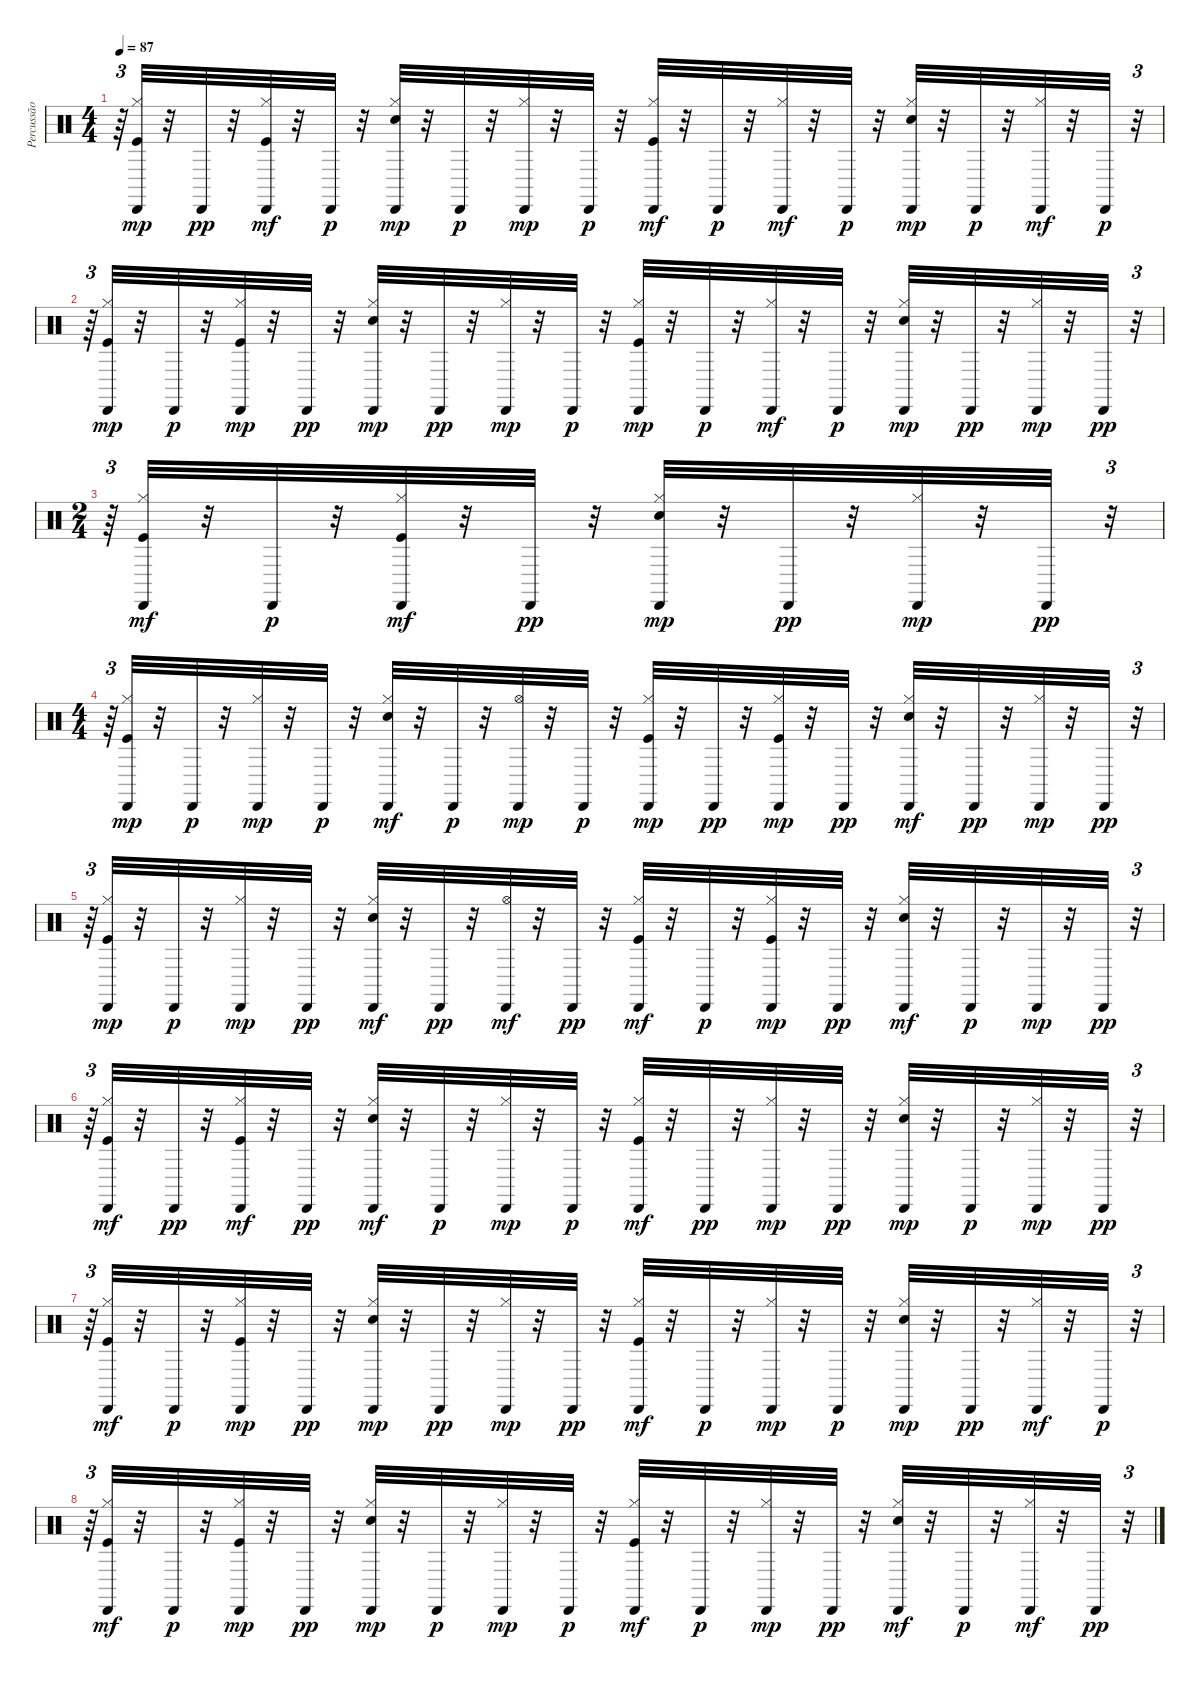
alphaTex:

\track ("Percussão" "Percussão") {instrument percussion}
\staff {score}
\articulation defaults
\ts (4 4)
\tempo 87
\clef neutral
\ks c
r.64{tu (3 2) dy pp} ("Kick (hit)" "Hi-Hat (closed)" "Cabasa (hit)").32{dy mp} r.32 "Cabasa (hit)".32{dy pp} r.32 ("Kick (hit)" "Hi-Hat (closed)" "Cabasa (hit)").32{dy mf} r.32 "Cabasa (hit)".32{dy p} r.32 ("Electric Snare (hit)" "Hi-Hat (closed)" "Cabasa (hit)").32{dy mp} r.32 "Cabasa (hit)".32{dy p} r.32 ("Hi-Hat (closed)" "Cabasa (hit)").32{dy mp} r.32 "Cabasa (hit)".32{dy p} r.32 ("Kick (hit)" "Hi-Hat (closed)" "Cabasa (hit)").32{dy mf} r.32 "Cabasa (hit)".32{dy p} r.32 ("Hi-Hat (closed)" "Cabasa (hit)").32{dy mf} r.32 "Cabasa (hit)".32{dy p} r.32 ("Electric Snare (hit)" "Hi-Hat (closed)" "Cabasa (hit)").32{dy mp} r.32 "Cabasa (hit)".32{dy p} r.32 ("Hi-Hat (closed)" "Cabasa (hit)").32{dy mf} r.32 "Cabasa (hit)".32{dy p} r.32{tu (3 2)} |
r.64{tu (3 2)} ("Kick (hit)" "Hi-Hat (closed)" "Cabasa (hit)").32{dy mp} r.32 "Cabasa (hit)".32{dy p} r.32 ("Kick (hit)" "Hi-Hat (closed)" "Cabasa (hit)").32{dy mp} r.32 "Cabasa (hit)".32{dy pp} r.32 ("Electric Snare (hit)" "Hi-Hat (closed)" "Cabasa (hit)").32{dy mp} r.32 "Cabasa (hit)".32{dy pp} r.32 ("Hi-Hat (closed)" "Cabasa (hit)").32{dy mp} r.32 "Cabasa (hit)".32{dy p} r.32 ("Kick (hit)" "Hi-Hat (closed)" "Cabasa (hit)").32{dy mp} r.32 "Cabasa (hit)".32{dy p} r.32 ("Hi-Hat (closed)" "Cabasa (hit)").32{dy mf} r.32 "Cabasa (hit)".32{dy p} r.32 ("Electric Snare (hit)" "Hi-Hat (closed)" "Cabasa (hit)").32{dy mp} r.32 "Cabasa (hit)".32{dy pp} r.32 ("Hi-Hat (closed)" "Cabasa (hit)").32{dy mp} r.32 "Cabasa (hit)".32{dy pp} r.32{tu (3 2)} |
\ts (2 4)
r.64{tu (3 2)} ("Hi-Hat (closed)" "Kick (hit)" "Cabasa (hit)").32{dy mf} r.32 "Cabasa (hit)".32{dy p} r.32 ("Hi-Hat (closed)" "Kick (hit)" "Cabasa (hit)").32{dy mf} r.32 "Cabasa (hit)".32{dy pp} r.32 ("Electric Snare (hit)" "Hi-Hat (closed)" "Cabasa (hit)").32{dy mp} r.32 "Cabasa (hit)".32{dy pp} r.32 ("Hi-Hat (closed)" "Cabasa (hit)").32{dy mp} r.32 "Cabasa (hit)".32{dy pp} r.32{tu (3 2)} |
\ts (4 4)
r.64{tu (3 2)} ("Kick (hit)" "Hi-Hat (closed)" "Cabasa (hit)").32{dy mp} r.32 "Cabasa (hit)".32{dy p} r.32 ("Hi-Hat (closed)" "Cabasa (hit)").32{dy mp} r.32 "Cabasa (hit)".32{dy p} r.32 ("Electric Snare (hit)" "Hi-Hat (closed)" "Cabasa (hit)").32{dy mf} r.32 "Cabasa (hit)".32{dy p} r.32 ("Hi-Hat (open)" "Cabasa (hit)").32{dy mp} r.32 "Cabasa (hit)".32{dy p} r.32 ("Kick (hit)" "Hi-Hat (closed)" "Cabasa (hit)").32{dy mp} r.32 "Cabasa (hit)".32{dy pp} r.32 ("Kick (hit)" "Hi-Hat (closed)" "Cabasa (hit)").32{dy mp} r.32 "Cabasa (hit)".32{dy pp} r.32 ("Electric Snare (hit)" "Hi-Hat (closed)" "Cabasa (hit)").32{dy mf} r.32 "Cabasa (hit)".32{dy pp} r.32 ("Hi-Hat (closed)" "Cabasa (hit)").32{dy mp} r.32 "Cabasa (hit)".32{dy pp} r.32{tu (3 2)} |
r.64{tu (3 2)} ("Kick (hit)" "Hi-Hat (closed)" "Cabasa (hit)").32{dy mp} r.32 "Cabasa (hit)".32{dy p} r.32 ("Hi-Hat (closed)" "Cabasa (hit)").32{dy mp} r.32 "Cabasa (hit)".32{dy pp} r.32 ("Electric Snare (hit)" "Hi-Hat (closed)" "Cabasa (hit)").32{dy mf} r.32 "Cabasa (hit)".32{dy pp} r.32 ("Hi-Hat (open)" "Cabasa (hit)").32{dy mf} r.32 "Cabasa (hit)".32{dy pp} r.32 ("Kick (hit)" "Hi-Hat (closed)" "Cabasa (hit)").32{dy mf} r.32 "Cabasa (hit)".32{dy p} r.32 ("Kick (hit)" "Hi-Hat (closed)" "Cabasa (hit)").32{dy mp} r.32 "Cabasa (hit)".32{dy pp} r.32 ("Electric Snare (hit)" "Hi-Hat (closed)" "Cabasa (hit)").32{dy mf} r.32 "Cabasa (hit)".32{dy p} r.32 "Cabasa (hit)".32{dy mp} r.32 "Cabasa (hit)".32{dy pp} r.32{tu (3 2)} |
r.64{tu (3 2)} ("Kick (hit)" "Hi-Hat (closed)" "Cabasa (hit)").32{dy mf} r.32 "Cabasa (hit)".32{dy pp} r.32 ("Kick (hit)" "Hi-Hat (closed)" "Cabasa (hit)").32{dy mf} r.32 "Cabasa (hit)".32{dy pp} r.32 ("Electric Snare (hit)" "Hi-Hat (closed)" "Cabasa (hit)").32{dy mf} r.32 "Cabasa (hit)".32{dy p} r.32 ("Hi-Hat (closed)" "Cabasa (hit)").32{dy mp} r.32 "Cabasa (hit)".32{dy p} r.32 ("Kick (hit)" "Hi-Hat (closed)" "Cabasa (hit)").32{dy mf} r.32 "Cabasa (hit)".32{dy pp} r.32 ("Hi-Hat (closed)" "Cabasa (hit)").32{dy mp} r.32 "Cabasa (hit)".32{dy pp} r.32 ("Electric Snare (hit)" "Hi-Hat (closed)" "Cabasa (hit)").32{dy mp} r.32 "Cabasa (hit)".32{dy p} r.32 ("Hi-Hat (closed)" "Cabasa (hit)").32{dy mp} r.32 "Cabasa (hit)".32{dy pp} r.32{tu (3 2)} |
r.64{tu (3 2)} ("Kick (hit)" "Hi-Hat (closed)" "Cabasa (hit)").32{dy mf} r.32 "Cabasa (hit)".32{dy p} r.32 ("Kick (hit)" "Hi-Hat (closed)" "Cabasa (hit)").32{dy mp} r.32 "Cabasa (hit)".32{dy pp} r.32 ("Electric Snare (hit)" "Hi-Hat (closed)" "Cabasa (hit)").32{dy mp} r.32 "Cabasa (hit)".32{dy pp} r.32 ("Hi-Hat (closed)" "Cabasa (hit)").32{dy mp} r.32 "Cabasa (hit)".32{dy pp} r.32 ("Kick (hit)" "Hi-Hat (closed)" "Cabasa (hit)").32{dy mf} r.32 "Cabasa (hit)".32{dy p} r.32 ("Hi-Hat (closed)" "Cabasa (hit)").32{dy mp} r.32 "Cabasa (hit)".32{dy p} r.32 ("Electric Snare (hit)" "Hi-Hat (closed)" "Cabasa (hit)").32{dy mp} r.32 "Cabasa (hit)".32{dy pp} r.32 ("Hi-Hat (closed)" "Cabasa (hit)").32{dy mf} r.32 "Cabasa (hit)".32{dy p} r.32{tu (3 2)} |
r.64{tu (3 2)} ("Kick (hit)" "Hi-Hat (closed)" "Cabasa (hit)").32{dy mf} r.32 "Cabasa (hit)".32{dy p} r.32 ("Kick (hit)" "Hi-Hat (closed)" "Cabasa (hit)").32{dy mp} r.32 "Cabasa (hit)".32{dy pp} r.32 ("Electric Snare (hit)" "Hi-Hat (closed)" "Cabasa (hit)").32{dy mp} r.32 "Cabasa (hit)".32{dy p} r.32 ("Hi-Hat (closed)" "Cabasa (hit)").32{dy mp} r.32 "Cabasa (hit)".32{dy p} r.32 ("Kick (hit)" "Hi-Hat (closed)" "Cabasa (hit)").32{dy mf} r.32 "Cabasa (hit)".32{dy p} r.32 ("Hi-Hat (closed)" "Cabasa (hit)").32{dy mp} r.32 "Cabasa (hit)".32{dy pp} r.32 ("Electric Snare (hit)" "Hi-Hat (closed)" "Cabasa (hit)").32{dy mf} r.32 "Cabasa (hit)".32{dy p} r.32 ("Hi-Hat (closed)" "Cabasa (hit)").32{dy mf} r.32 "Cabasa (hit)".32{dy pp} r.32{tu (3 2)}
